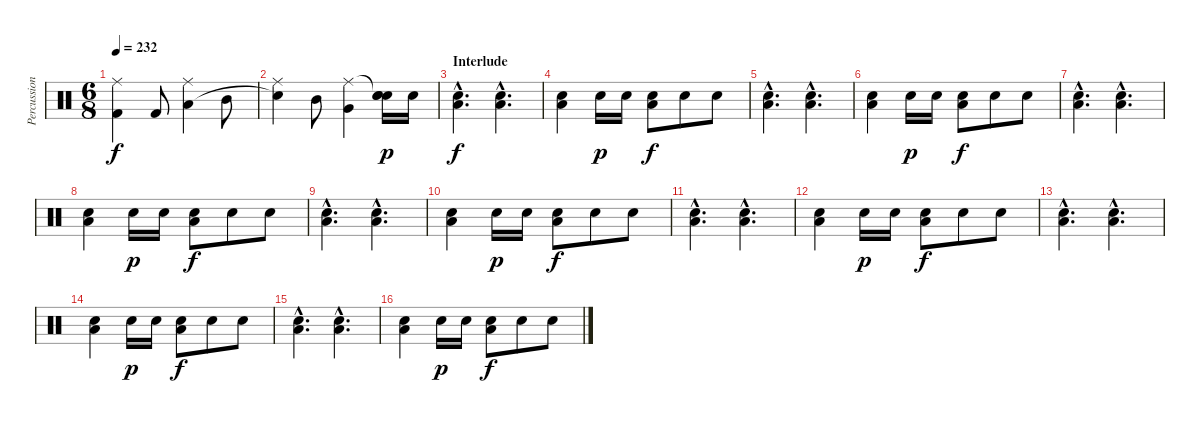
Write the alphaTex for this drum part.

\track ("Percussion" "Percussion") {instrument percussion}
\staff {score}
\articulation defaults
\ts (6 8)
\tempo 232
\clef neutral
\ks c
("Ride (middle)" "Kick (hit) 2").4{dy f} "Kick (hit) 2".8 ("Ride (middle)" "Low Tom (hit)").4 "Mid Tom (hit)".8 |
("Ride (middle)" "Snare (hit)"{t}).4 "Mid Tom (hit)".8 ("Ride (middle)" "Very Low Tom (hit)").4 ("Snare (hit)"{t} "Snare (hit) 2" "Snare (hit)").16{dy p} "Snare (hit) 2".16 |
\section ("" "Interlude")
("Electric Snare (hit)"{hac} "Low Floor Tom (hit)"{hac}).4{d dy f volume 11} ("Electric Snare (hit)"{hac} "Low Floor Tom (hit)"{hac}).4{d} |
("Electric Snare (hit)" "Low Floor Tom (hit)").4 "Snare (hit) 2".16{dy p} "Snare (hit) 2".16 ("Electric Snare (hit)" "Low Floor Tom (hit)").8{dy f} "Electric Snare (hit)".8 "Electric Snare (hit)".8 |
("Electric Snare (hit)"{hac} "Low Floor Tom (hit)"{hac}).4{d} ("Electric Snare (hit)"{hac} "Low Floor Tom (hit)"{hac}).4{d} |
("Electric Snare (hit)" "Low Floor Tom (hit)").4 "Snare (hit) 2".16{dy p} "Snare (hit) 2".16 ("Electric Snare (hit)" "Low Floor Tom (hit)").8{dy f} "Electric Snare (hit)".8 "Electric Snare (hit)".8 |
("Electric Snare (hit)"{hac} "Low Floor Tom (hit)"{hac}).4{d} ("Electric Snare (hit)"{hac} "Low Floor Tom (hit)"{hac}).4{d} |
("Electric Snare (hit)" "Low Floor Tom (hit)").4 "Snare (hit) 2".16{dy p} "Snare (hit) 2".16 ("Electric Snare (hit)" "Low Floor Tom (hit)").8{dy f} "Electric Snare (hit)".8 "Electric Snare (hit)".8 |
("Electric Snare (hit)"{hac} "Low Floor Tom (hit)"{hac}).4{d} ("Electric Snare (hit)"{hac} "Low Floor Tom (hit)"{hac}).4{d} |
("Electric Snare (hit)" "Low Floor Tom (hit)").4 "Snare (hit) 2".16{dy p} "Snare (hit) 2".16 ("Electric Snare (hit)" "Low Floor Tom (hit)").8{dy f} "Electric Snare (hit)".8 "Electric Snare (hit)".8 |
("Electric Snare (hit)"{hac} "Low Floor Tom (hit)"{hac}).4{d} ("Electric Snare (hit)"{hac} "Low Floor Tom (hit)"{hac}).4{d} |
("Electric Snare (hit)" "Low Floor Tom (hit)").4 "Snare (hit) 2".16{dy p} "Snare (hit) 2".16 ("Electric Snare (hit)" "Low Floor Tom (hit)").8{dy f} "Electric Snare (hit)".8 "Electric Snare (hit)".8 |
("Electric Snare (hit)"{hac} "Low Floor Tom (hit)"{hac}).4{d} ("Electric Snare (hit)"{hac} "Low Floor Tom (hit)"{hac}).4{d} |
("Electric Snare (hit)" "Low Floor Tom (hit)").4 "Snare (hit) 2".16{dy p} "Snare (hit) 2".16 ("Electric Snare (hit)" "Low Floor Tom (hit)").8{dy f} "Electric Snare (hit)".8 "Electric Snare (hit)".8 |
("Electric Snare (hit)"{hac} "Low Floor Tom (hit)"{hac}).4{d} ("Electric Snare (hit)"{hac} "Low Floor Tom (hit)"{hac}).4{d} |
("Electric Snare (hit)" "Low Floor Tom (hit)").4 "Snare (hit) 2".16{dy p} "Snare (hit) 2".16 ("Electric Snare (hit)" "Low Floor Tom (hit)").8{dy f} "Electric Snare (hit)".8 "Electric Snare (hit)".8
